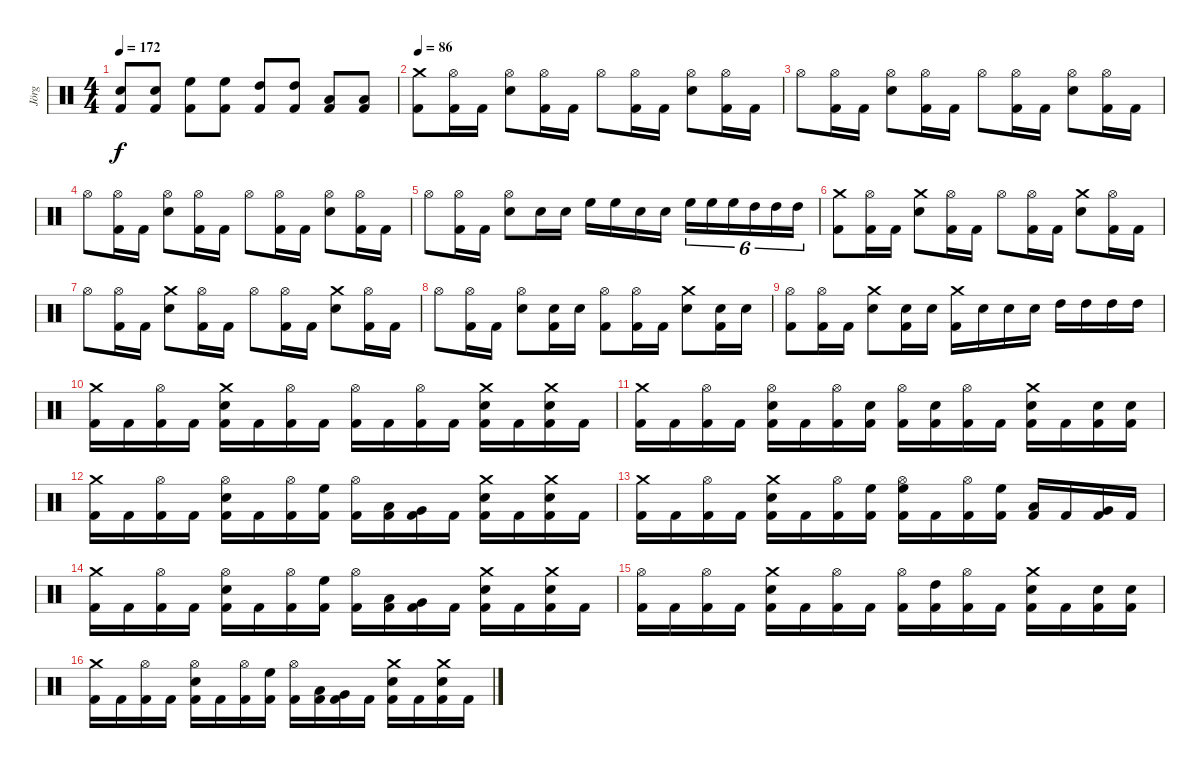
\track ("Jörg" "Jörg") {instrument percussion}
\staff {score}
\articulation defaults
\ts (4 4)
\tempo 172
\clef neutral
\ks c
("Snare (hit) 2" "Kick (hit) 2").8{dy f} ("Snare (hit) 2" "Kick (hit) 2").8 ("High Floor Tom (hit)" "Kick (hit) 2").8 ("High Floor Tom (hit)" "Kick (hit) 2").8 ("High Tom (hit)" "Kick (hit) 2").8 ("High Tom (hit)" "Kick (hit) 2").8 ("Low Tom (hit)" "Kick (hit) 2").8 ("Low Tom (hit)" "Kick (hit) 2").8 |
\tempo 86
("Kick (hit) 2" "Crash medium (hit)").8 ("Kick (hit) 2" "Hi-Hat (open)").16 "Kick (hit) 2".16 ("Snare (hit) 2" "Hi-Hat (open)").8 ("Kick (hit) 2" "Hi-Hat (open)").16 "Kick (hit) 2".16 "Hi-Hat (open)".8 ("Kick (hit) 2" "Hi-Hat (open)").16 "Kick (hit) 2".16 ("Snare (hit) 2" "Hi-Hat (open)").8 ("Kick (hit) 2" "Hi-Hat (open)").16 "Kick (hit) 2".16 |
"Hi-Hat (open)".8 ("Kick (hit) 2" "Hi-Hat (open)").16 "Kick (hit) 2".16 ("Snare (hit) 2" "Hi-Hat (open)").8 ("Kick (hit) 2" "Hi-Hat (open)").16 "Kick (hit) 2".16 "Hi-Hat (open)".8 ("Kick (hit) 2" "Hi-Hat (open)").16 "Kick (hit) 2".16 ("Snare (hit) 2" "Hi-Hat (open)").8 ("Kick (hit) 2" "Hi-Hat (open)").16 "Kick (hit) 2".16 |
"Hi-Hat (open)".8 ("Kick (hit) 2" "Hi-Hat (open)").16 "Kick (hit) 2".16 ("Snare (hit) 2" "Hi-Hat (open)").8 ("Kick (hit) 2" "Hi-Hat (open)").16 "Kick (hit) 2".16 "Hi-Hat (open)".8 ("Kick (hit) 2" "Hi-Hat (open)").16 "Kick (hit) 2".16 ("Snare (hit) 2" "Hi-Hat (open)").8 ("Kick (hit) 2" "Hi-Hat (open)").16 "Kick (hit) 2".16 |
"Hi-Hat (open)".8 ("Kick (hit) 2" "Hi-Hat (open)").16 "Kick (hit) 2".16 ("Snare (hit) 2" "Hi-Hat (open)").8 "Snare (hit) 2".16 "Snare (hit) 2".16 "High Floor Tom (hit)".16 "High Floor Tom (hit)".16 "Snare (hit) 2".16 "Snare (hit) 2".16 "High Floor Tom (hit)".16{tu (6 4)} "High Floor Tom (hit)".16{tu (6 4)} "High Floor Tom (hit)".16{tu (6 4)} "High Tom (hit)".16{tu (6 4)} "High Tom (hit)".16{tu (6 4)} "High Tom (hit)".16{tu (6 4)} |
("Crash medium (hit)" "Kick (hit) 2").8 ("Hi-Hat (open)" "Kick (hit) 2").16 "Kick (hit) 2".16 ("Snare (hit) 2" "Crash medium (hit)").8 ("Kick (hit) 2" "Hi-Hat (open)").16 "Kick (hit) 2".16 "Hi-Hat (open)".8 ("Kick (hit) 2" "Hi-Hat (open)").16 "Kick (hit) 2".16 ("Snare (hit) 2" "Crash medium (hit)").8 ("Kick (hit) 2" "Hi-Hat (open)").16 "Kick (hit) 2".16 |
"Hi-Hat (open)".8 ("Kick (hit) 2" "Hi-Hat (open)").16 "Kick (hit) 2".16 ("Snare (hit) 2" "Crash medium (hit)").8 ("Kick (hit) 2" "Hi-Hat (open)").16 "Kick (hit) 2".16 "Hi-Hat (open)".8 ("Kick (hit) 2" "Hi-Hat (open)").16 "Kick (hit) 2".16 ("Snare (hit) 2" "Crash medium (hit)").8 ("Kick (hit) 2" "Hi-Hat (open)").16 "Kick (hit) 2".16 |
"Hi-Hat (open)".8 ("Kick (hit) 2" "Hi-Hat (open)").16 "Kick (hit) 2".16 ("Snare (hit) 2" "Hi-Hat (open)").8 ("Kick (hit) 2" "Snare (hit) 2").16 "Snare (hit) 2".16 ("Kick (hit) 2" "Hi-Hat (open)").8 ("Kick (hit) 2" "Hi-Hat (open)").16 "Kick (hit) 2".16 ("Snare (hit) 2" "Crash medium (hit)").8 ("Kick (hit) 2" "Snare (hit) 2").16 "Snare (hit) 2".16 |
("Kick (hit) 2" "Hi-Hat (open)").8 ("Kick (hit) 2" "Hi-Hat (open)").16 "Kick (hit) 2".16 ("Snare (hit) 2" "Crash medium (hit)").8 ("Kick (hit) 2" "Snare (hit) 2").16 "Snare (hit) 2".16 ("Kick (hit) 2" "Crash medium (hit)").16 "Snare (hit) 2".16 "Snare (hit) 2".16 "Snare (hit) 2".16 "High Tom (hit)".16 "High Tom (hit)".16 "High Tom (hit)".16 "High Tom (hit)".16 |
("Crash medium (hit)" "Kick (hit) 2").16 "Kick (hit) 2".16 ("Hi-Hat (open)" "Kick (hit) 2").16 "Kick (hit) 2".16 ("Snare (hit) 2" "Crash medium (hit)" "Kick (hit) 2").16 "Kick (hit) 2".16 ("Hi-Hat (open)" "Kick (hit) 2").16 "Kick (hit) 2".16 ("Hi-Hat (open)" "Kick (hit) 2").16 "Kick (hit) 2".16 ("Hi-Hat (open)" "Kick (hit) 2").16 "Kick (hit) 2".16 ("Snare (hit) 2" "Crash medium (hit)" "Kick (hit) 2").16 "Kick (hit) 2".16 ("Snare (hit) 2" "Crash medium (hit)" "Kick (hit) 2").16 "Kick (hit) 2".16 |
("Crash medium (hit)" "Kick (hit) 2").16 "Kick (hit) 2".16 ("Hi-Hat (open)" "Kick (hit) 2").16 "Kick (hit) 2".16 ("Snare (hit) 2" "Hi-Hat (open)" "Kick (hit) 2").16 "Kick (hit) 2".16 ("Hi-Hat (open)" "Kick (hit) 2").16 ("Snare (hit) 2" "Kick (hit) 2").16 ("Hi-Hat (open)" "Kick (hit) 2").16 ("Snare (hit) 2" "Kick (hit) 2").16 ("Hi-Hat (open)" "Kick (hit) 2").16 "Kick (hit) 2".16 ("Crash medium (hit)" "Snare (hit) 2" "Kick (hit) 2").16 "Kick (hit) 2".16 ("Snare (hit) 2" "Kick (hit) 2").16 ("Snare (hit) 2" "Kick (hit) 2").16 |
("Crash medium (hit)" "Kick (hit) 2").16 "Kick (hit) 2".16 ("Hi-Hat (open)" "Kick (hit) 2").16 "Kick (hit) 2".16 ("Hi-Hat (open)" "Snare (hit) 2" "Kick (hit) 2").16 "Kick (hit) 2".16 ("Hi-Hat (open)" "Kick (hit) 2").16 ("High Floor Tom (hit)" "Kick (hit) 2").16 ("Hi-Hat (open)" "Kick (hit) 2").16 ("Low Tom (hit)" "Kick (hit) 2").16 ("Very Low Tom (hit)" "Kick (hit) 2").16 "Kick (hit) 2".16 ("Crash medium (hit)" "Snare (hit) 2" "Kick (hit) 2").16 "Kick (hit) 2".16 ("Crash medium (hit)" "Snare (hit) 2" "Kick (hit) 2").16 "Kick (hit) 2".16 |
("Crash medium (hit)" "Kick (hit) 2").16 "Kick (hit) 2".16 ("Hi-Hat (open)" "Kick (hit) 2").16 "Kick (hit) 2".16 ("Crash medium (hit)" "Snare (hit) 2" "Kick (hit) 2").16 "Kick (hit) 2".16 ("Hi-Hat (open)" "Kick (hit) 2").16 ("High Floor Tom (hit)" "Kick (hit) 2").16 ("Hi-Hat (open)" "High Floor Tom (hit)" "Kick (hit) 2").16 "Kick (hit) 2".16 ("Hi-Hat (open)" "Kick (hit) 2").16 ("High Floor Tom (hit)" "Kick (hit) 2").16 ("Low Tom (hit)" "Kick (hit) 2").16 "Kick (hit) 2".16 ("Very Low Tom (hit)" "Kick (hit) 2").16 "Kick (hit) 2".16 |
("Crash medium (hit)" "Kick (hit) 2").16 "Kick (hit) 2".16 ("Hi-Hat (open)" "Kick (hit) 2").16 "Kick (hit) 2".16 ("Hi-Hat (open)" "Snare (hit) 2" "Kick (hit) 2").16 "Kick (hit) 2".16 ("Hi-Hat (open)" "Kick (hit) 2").16 ("High Floor Tom (hit)" "Kick (hit) 2").16 ("Hi-Hat (open)" "Kick (hit) 2").16 ("Low Tom (hit)" "Kick (hit) 2").16 ("Very Low Tom (hit)" "Kick (hit) 2").16 "Kick (hit) 2".16 ("Crash medium (hit)" "Snare (hit) 2" "Kick (hit) 2").16 "Kick (hit) 2".16 ("Crash medium (hit)" "Snare (hit) 2" "Kick (hit) 2").16 "Kick (hit) 2".16 |
("Hi-Hat (open)" "Kick (hit) 2").16 "Kick (hit) 2".16 ("Hi-Hat (open)" "Kick (hit) 2").16 "Kick (hit) 2".16 ("Snare (hit) 2" "Crash medium (hit)" "Kick (hit) 2").16 "Kick (hit) 2".16 ("Hi-Hat (open)" "Kick (hit) 2").16 "Kick (hit) 2".16 ("Hi-Hat (open)" "Kick (hit) 2").16 ("High Tom (hit)" "Kick (hit) 2").16 ("Hi-Hat (open)" "Kick (hit) 2").16 "Kick (hit) 2".16 ("Crash medium (hit)" "Snare (hit) 2" "Kick (hit) 2").16 "Kick (hit) 2".16 ("Snare (hit) 2" "Kick (hit) 2").16 ("Snare (hit) 2" "Kick (hit) 2").16 |
("Crash medium (hit)" "Kick (hit) 2").16 "Kick (hit) 2".16 ("Hi-Hat (open)" "Kick (hit) 2").16 "Kick (hit) 2".16 ("Hi-Hat (open)" "Snare (hit) 2" "Kick (hit) 2").16 "Kick (hit) 2".16 ("Hi-Hat (open)" "Kick (hit) 2").16 ("High Floor Tom (hit)" "Kick (hit) 2").16 ("Hi-Hat (open)" "Kick (hit) 2").16 ("Low Tom (hit)" "Kick (hit) 2").16 ("Very Low Tom (hit)" "Kick (hit) 2").16 "Kick (hit) 2".16 ("Crash medium (hit)" "Snare (hit) 2" "Kick (hit) 2").16 "Kick (hit) 2".16 ("Crash medium (hit)" "Snare (hit) 2" "Kick (hit) 2").16 "Kick (hit) 2".16
